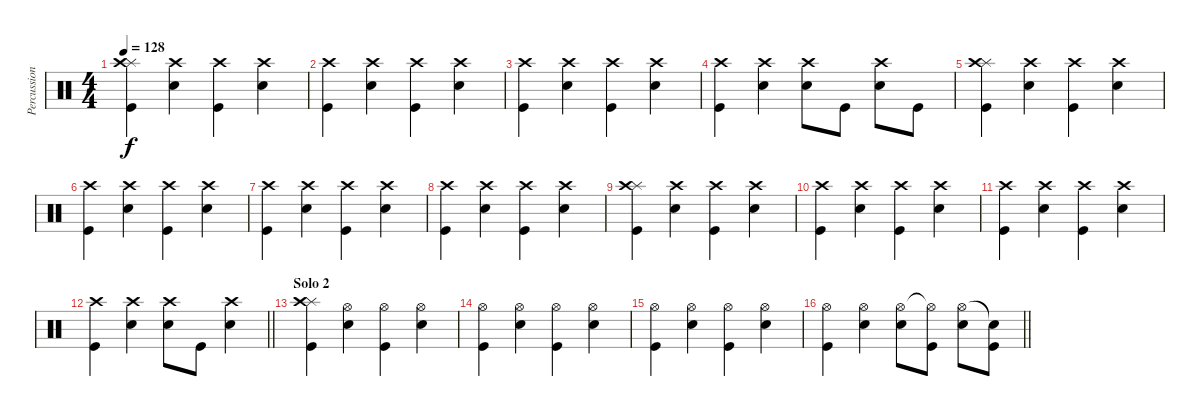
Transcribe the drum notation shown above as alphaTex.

\track ("Percussion" "Percussion") {instrument percussion}
\staff {score}
\articulation defaults
\ts (4 4)
\tempo 128
\clef neutral
\ks c
("Splash (hit)" "Crash high (hit)" "Kick (hit)").4{dy f} ("Crash high (hit)" "Electric Snare (hit)").4 ("Crash high (hit)" "Kick (hit)").4 ("Crash high (hit)" "Electric Snare (hit)").4 |
("Crash high (hit)" "Kick (hit)").4 ("Crash high (hit)" "Electric Snare (hit)").4 ("Crash high (hit)" "Kick (hit)").4 ("Crash high (hit)" "Electric Snare (hit)").4 |
("Crash high (hit)" "Kick (hit)").4 ("Crash high (hit)" "Electric Snare (hit)").4 ("Crash high (hit)" "Kick (hit)").4 ("Crash high (hit)" "Electric Snare (hit)").4 |
("Crash high (hit)" "Kick (hit)").4 ("Crash high (hit)" "Electric Snare (hit)").4 ("Crash high (hit)" "Electric Snare (hit)").8 "Kick (hit)".8 ("Crash high (hit)" "Electric Snare (hit)").8 "Kick (hit)".8 |
("Splash (hit)" "Crash high (hit)" "Kick (hit)").4 ("Crash high (hit)" "Electric Snare (hit)").4 ("Crash high (hit)" "Kick (hit)").4 ("Crash high (hit)" "Electric Snare (hit)").4 |
("Crash high (hit)" "Kick (hit)").4 ("Crash high (hit)" "Electric Snare (hit)").4 ("Crash high (hit)" "Kick (hit)").4 ("Crash high (hit)" "Electric Snare (hit)").4 |
("Crash high (hit)" "Kick (hit)").4 ("Crash high (hit)" "Electric Snare (hit)").4 ("Crash high (hit)" "Kick (hit)").4 ("Crash high (hit)" "Electric Snare (hit)").4 |
("Crash high (hit)" "Kick (hit)").4 ("Crash high (hit)" "Electric Snare (hit)").4 ("Crash high (hit)" "Kick (hit)").4 ("Crash high (hit)" "Electric Snare (hit)").4 |
("Splash (hit)" "Crash high (hit)" "Kick (hit)").4 ("Crash high (hit)" "Electric Snare (hit)").4 ("Crash high (hit)" "Kick (hit)").4 ("Crash high (hit)" "Electric Snare (hit)").4 |
("Crash high (hit)" "Kick (hit)").4 ("Crash high (hit)" "Electric Snare (hit)").4 ("Crash high (hit)" "Kick (hit)").4 ("Crash high (hit)" "Electric Snare (hit)").4 |
("Crash high (hit)" "Kick (hit)").4 ("Crash high (hit)" "Electric Snare (hit)").4 ("Crash high (hit)" "Kick (hit)").4 ("Crash high (hit)" "Electric Snare (hit)").4 |
\barLineRight lightlight
("Crash high (hit)" "Kick (hit)").4 ("Crash high (hit)" "Electric Snare (hit)").4 ("Crash high (hit)" "Electric Snare (hit)").8 "Kick (hit)".8 ("Crash high (hit)" "Electric Snare (hit)").4 |
\section ("" "Solo 2")
("Splash (hit)" "Crash high (hit)" "Kick (hit)").4 ("Hi-Hat (open)" "Electric Snare (hit)").4 ("Hi-Hat (open)" "Kick (hit)").4 ("Hi-Hat (open)" "Electric Snare (hit)").4 |
("Hi-Hat (open)" "Kick (hit)").4 ("Hi-Hat (open)" "Electric Snare (hit)").4 ("Hi-Hat (open)" "Kick (hit)").4 ("Hi-Hat (open)" "Electric Snare (hit)").4 |
("Hi-Hat (open)" "Kick (hit)").4 ("Hi-Hat (open)" "Electric Snare (hit)").4 ("Hi-Hat (open)" "Kick (hit)").4 ("Hi-Hat (open)" "Electric Snare (hit)").4 |
\barLineRight lightlight
("Hi-Hat (open)" "Kick (hit)").4 ("Hi-Hat (open)" "Electric Snare (hit)").4 ("Hi-Hat (open)" "Electric Snare (hit)").8 ("Hi-Hat (open)"{t} "Kick (hit)").8 ("Hi-Hat (open)" "Electric Snare (hit)").8 ("Snare (hit)"{t} "Kick (hit)").8
